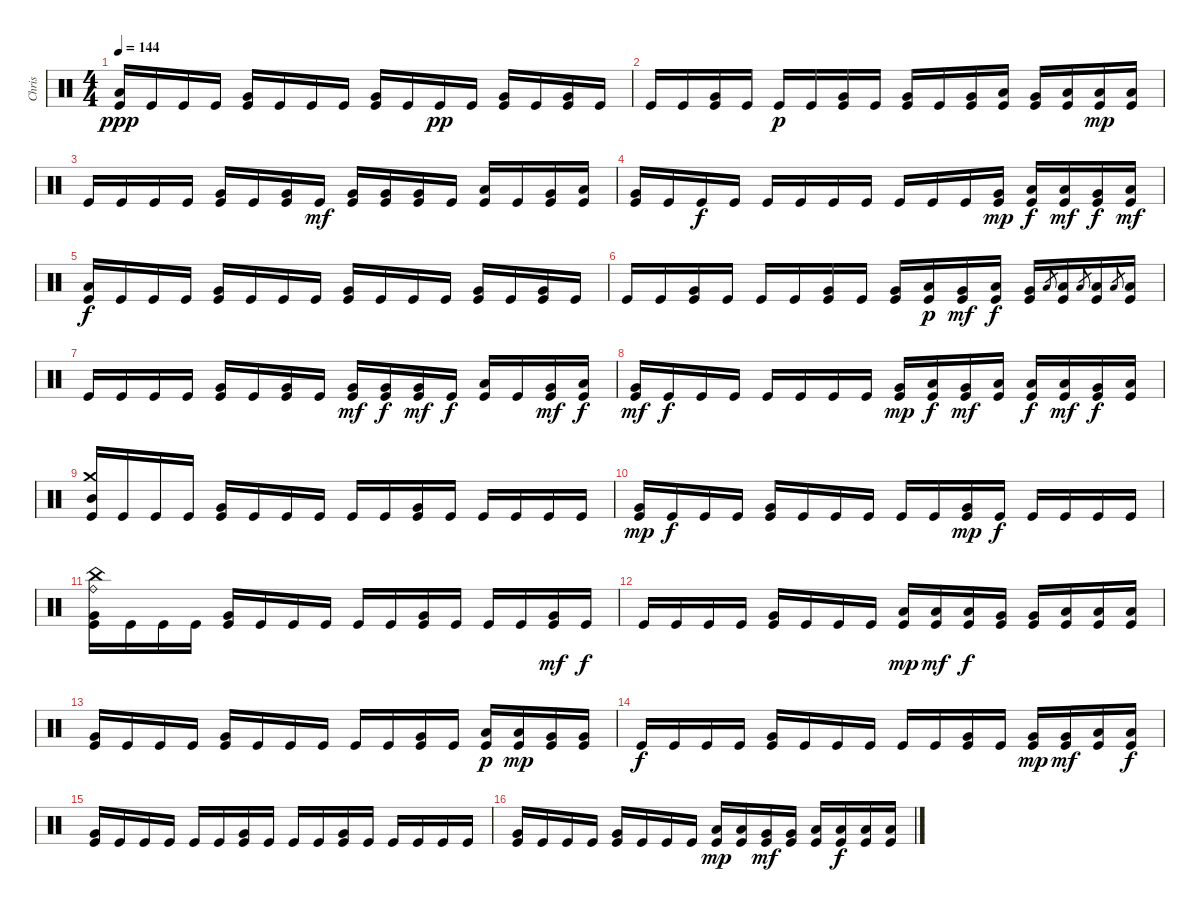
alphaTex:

\track ("Chris" "Chris") {instrument percussion}
\staff {score}
\articulation defaults
\ts (4 4)
\tempo 144
\clef neutral
\ks c
("Low Tom (hit)" "Kick (hit)").16{dy ppp} "Kick (hit)".16 "Kick (hit)".16 "Kick (hit)".16 ("Very Low Tom (hit)" "Kick (hit)").16 "Kick (hit)".16 "Kick (hit)".16 "Kick (hit)".16 ("Very Low Tom (hit)" "Kick (hit)").16 "Kick (hit)".16 "Kick (hit)".16{dy pp} "Kick (hit)".16 ("Very Low Tom (hit)" "Kick (hit)").16 "Kick (hit)".16 ("Very Low Tom (hit)" "Kick (hit)").16 "Kick (hit)".16 |
"Kick (hit)".16 "Kick (hit)".16 ("Very Low Tom (hit)" "Kick (hit)").16 "Kick (hit)".16 "Kick (hit)".16{dy p} "Kick (hit)".16 ("Very Low Tom (hit)" "Kick (hit)").16 "Kick (hit)".16 ("Very Low Tom (hit)" "Kick (hit)").16 "Kick (hit)".16 ("Very Low Tom (hit)" "Kick (hit)").16 ("Low Floor Tom (hit)" "Kick (hit)").16 ("Very Low Tom (hit)" "Kick (hit)").16 ("Low Floor Tom (hit)" "Kick (hit)").16 ("Low Floor Tom (hit)" "Kick (hit)").16{dy mp} ("Low Floor Tom (hit)" "Kick (hit)").16 |
"Kick (hit)".16 "Kick (hit)".16 "Kick (hit)".16 "Kick (hit)".16 ("Very Low Tom (hit)" "Kick (hit)").16 "Kick (hit)".16 ("Very Low Tom (hit)" "Kick (hit)").16 "Kick (hit)".16{dy mf} ("Very Low Tom (hit)" "Kick (hit)").16 ("Very Low Tom (hit)" "Kick (hit)").16 ("Very Low Tom (hit)" "Kick (hit)").16 "Kick (hit)".16 ("Low Floor Tom (hit)" "Kick (hit)").16 "Kick (hit)".16 ("Very Low Tom (hit)" "Kick (hit)").16 ("Low Floor Tom (hit)" "Kick (hit)").16 |
("Very Low Tom (hit)" "Kick (hit)").16 "Kick (hit)".16 "Kick (hit)".16{dy f} "Kick (hit)".16 "Kick (hit)".16 "Kick (hit)".16 "Kick (hit)".16 "Kick (hit)".16 "Kick (hit)".16 "Kick (hit)".16 "Kick (hit)".16 ("Very Low Tom (hit)" "Kick (hit)").16{dy mp} ("Low Floor Tom (hit)" "Kick (hit)").16{dy f} ("Low Tom (hit)" "Kick (hit)").16{dy mf} ("Very Low Tom (hit)" "Kick (hit)").16{dy f} ("Low Floor Tom (hit)" "Kick (hit)").16{dy mf} |
("Low Tom (hit)" "Kick (hit)").16{dy f} "Kick (hit)".16 "Kick (hit)".16 "Kick (hit)".16 ("Very Low Tom (hit)" "Kick (hit)").16 "Kick (hit)".16 "Kick (hit)".16 "Kick (hit)".16 ("Very Low Tom (hit)" "Kick (hit)").16 "Kick (hit)".16 "Kick (hit)".16 "Kick (hit)".16 ("Very Low Tom (hit)" "Kick (hit)").16 "Kick (hit)".16 ("Very Low Tom (hit)" "Kick (hit)").16 "Kick (hit)".16 |
"Kick (hit)".16 "Kick (hit)".16 ("Very Low Tom (hit)" "Kick (hit)").16 "Kick (hit)".16 "Kick (hit)".16 "Kick (hit)".16 ("Very Low Tom (hit)" "Kick (hit)").16 "Kick (hit)".16 ("Very Low Tom (hit)" "Kick (hit)").16 ("Low Tom (hit)" "Kick (hit)").16{dy p} ("Very Low Tom (hit)" "Kick (hit)").16{dy mf} ("Low Floor Tom (hit)" "Kick (hit)").16{dy f} ("Very Low Tom (hit)" "Kick (hit)").16 "Low Floor Tom (hit)".8{gr} ("Low Floor Tom (hit)" "Kick (hit)").16 "Low Floor Tom (hit)".8{gr} ("Low Floor Tom (hit)" "Kick (hit)").16 "Low Floor Tom (hit)".8{gr} ("Low Floor Tom (hit)" "Kick (hit)").16 |
"Kick (hit)".16 "Kick (hit)".16 "Kick (hit)".16 "Kick (hit)".16 ("Very Low Tom (hit)" "Kick (hit)").16 "Kick (hit)".16 ("Very Low Tom (hit)" "Kick (hit)").16 "Kick (hit)".16 ("Very Low Tom (hit)" "Kick (hit)").16{dy mf} ("Very Low Tom (hit)" "Kick (hit)").16{dy f} ("Very Low Tom (hit)" "Kick (hit)").16{dy mf} "Kick (hit)".16{dy f} ("Low Floor Tom (hit)" "Kick (hit)").16 "Kick (hit)".16 ("Very Low Tom (hit)" "Kick (hit)").16{dy mf} ("Low Floor Tom (hit)" "Kick (hit)").16{dy f} |
("Very Low Tom (hit)" "Kick (hit)").16{dy mf} "Kick (hit)".16{dy f} "Kick (hit)".16 "Kick (hit)".16 "Kick (hit)".16 "Kick (hit)".16 "Kick (hit)".16 "Kick (hit)".16 ("Very Low Tom (hit)" "Kick (hit)").16{dy mp} ("Low Floor Tom (hit)" "Kick (hit)").16{dy f} ("Very Low Tom (hit)" "Kick (hit)").16{dy mf} ("Low Tom (hit)" "Kick (hit)").16 ("Low Floor Tom (hit)" "Kick (hit)").16{dy f} ("Low Tom (hit)" "Kick (hit)").16{dy mf} ("Very Low Tom (hit)" "Kick (hit)").16{dy f} ("Low Floor Tom (hit)" "Kick (hit)").16 |
("Crash medium (hit)" "Mid Tom (hit)" "Kick (hit)").16 "Kick (hit)".16 "Kick (hit)".16 "Kick (hit)".16 ("Very Low Tom (hit)" "Kick (hit)").16 "Kick (hit)".16 "Kick (hit)".16 "Kick (hit)".16 "Kick (hit)".16 "Kick (hit)".16 ("Very Low Tom (hit)" "Kick (hit)").16 "Kick (hit)".16 "Kick (hit)".16 "Kick (hit)".16 "Kick (hit)".16 "Kick (hit)".16 |
("Very Low Tom (hit)" "Kick (hit)").16{dy mp} "Kick (hit)".16{dy f} "Kick (hit)".16 "Kick (hit)".16 ("Very Low Tom (hit)" "Kick (hit)").16 "Kick (hit)".16 "Kick (hit)".16 "Kick (hit)".16 "Kick (hit)".16 "Kick (hit)".16 ("Very Low Tom (hit)" "Kick (hit)").16{dy mp} "Kick (hit)".16{dy f} "Kick (hit)".16 "Kick (hit)".16 "Kick (hit)".16 "Kick (hit)".16 |
("China (hit)" "Ride (bell)" "Very Low Tom (hit)" "Kick (hit)").16 "Kick (hit)".16 "Kick (hit)".16 "Kick (hit)".16 ("Very Low Tom (hit)" "Kick (hit)").16 "Kick (hit)".16 "Kick (hit)".16 "Kick (hit)".16 "Kick (hit)".16 "Kick (hit)".16 ("Very Low Tom (hit)" "Kick (hit)").16 "Kick (hit)".16 "Kick (hit)".16 "Kick (hit)".16 ("Very Low Tom (hit)" "Kick (hit)").16{dy mf} "Kick (hit)".16{dy f} |
"Kick (hit)".16 "Kick (hit)".16 "Kick (hit)".16 "Kick (hit)".16 ("Very Low Tom (hit)" "Kick (hit)").16 "Kick (hit)".16 "Kick (hit)".16 "Kick (hit)".16 ("Low Tom (hit)" "Kick (hit)").16{dy mp} ("Low Tom (hit)" "Kick (hit)").16{dy mf} ("Low Tom (hit)" "Kick (hit)").16{dy f} ("Very Low Tom (hit)" "Kick (hit)").16 ("Very Low Tom (hit)" "Kick (hit)").16 ("Low Floor Tom (hit)" "Kick (hit)").16 ("Low Floor Tom (hit)" "Kick (hit)").16 ("Low Floor Tom (hit)" "Kick (hit)").16 |
("Very Low Tom (hit)" "Kick (hit)").16 "Kick (hit)".16 "Kick (hit)".16 "Kick (hit)".16 ("Very Low Tom (hit)" "Kick (hit)").16 "Kick (hit)".16 "Kick (hit)".16 "Kick (hit)".16 "Kick (hit)".16 "Kick (hit)".16 ("Very Low Tom (hit)" "Kick (hit)").16 "Kick (hit)".16 ("Low Floor Tom (hit)" "Kick (hit)").16{dy p} ("Low Floor Tom (hit)" "Kick (hit)").16{dy mp} ("Very Low Tom (hit)" "Kick (hit)").16 ("Very Low Tom (hit)" "Kick (hit)").16 |
"Kick (hit)".16{dy f} "Kick (hit)".16 "Kick (hit)".16 "Kick (hit)".16 ("Very Low Tom (hit)" "Kick (hit)").16 "Kick (hit)".16 "Kick (hit)".16 "Kick (hit)".16 "Kick (hit)".16 "Kick (hit)".16 ("Very Low Tom (hit)" "Kick (hit)").16 "Kick (hit)".16 ("Very Low Tom (hit)" "Kick (hit)").16{dy mp} ("Very Low Tom (hit)" "Kick (hit)").16{dy mf} ("Low Floor Tom (hit)" "Kick (hit)").16 ("Low Floor Tom (hit)" "Kick (hit)").16{dy f} |
("Very Low Tom (hit)" "Kick (hit)").16 "Kick (hit)".16 "Kick (hit)".16 "Kick (hit)".16 "Kick (hit)".16 "Kick (hit)".16 ("Very Low Tom (hit)" "Kick (hit)").16 "Kick (hit)".16 "Kick (hit)".16 "Kick (hit)".16 ("Very Low Tom (hit)" "Kick (hit)").16 "Kick (hit)".16 "Kick (hit)".16 "Kick (hit)".16 "Kick (hit)".16 "Kick (hit)".16 |
("Very Low Tom (hit)" "Kick (hit)").16 "Kick (hit)".16 "Kick (hit)".16 "Kick (hit)".16 ("Very Low Tom (hit)" "Kick (hit)").16 "Kick (hit)".16 "Kick (hit)".16 "Kick (hit)".16 ("Low Tom (hit)" "Kick (hit)").16{dy mp} ("Low Tom (hit)" "Kick (hit)").16 ("Very Low Tom (hit)" "Kick (hit)").16{dy mf} ("Very Low Tom (hit)" "Kick (hit)").16 ("Low Floor Tom (hit)" "Kick (hit)").16 ("Low Floor Tom (hit)" "Kick (hit)").16{dy f} ("Low Floor Tom (hit)" "Kick (hit)").16 ("Low Floor Tom (hit)" "Kick (hit)").16
